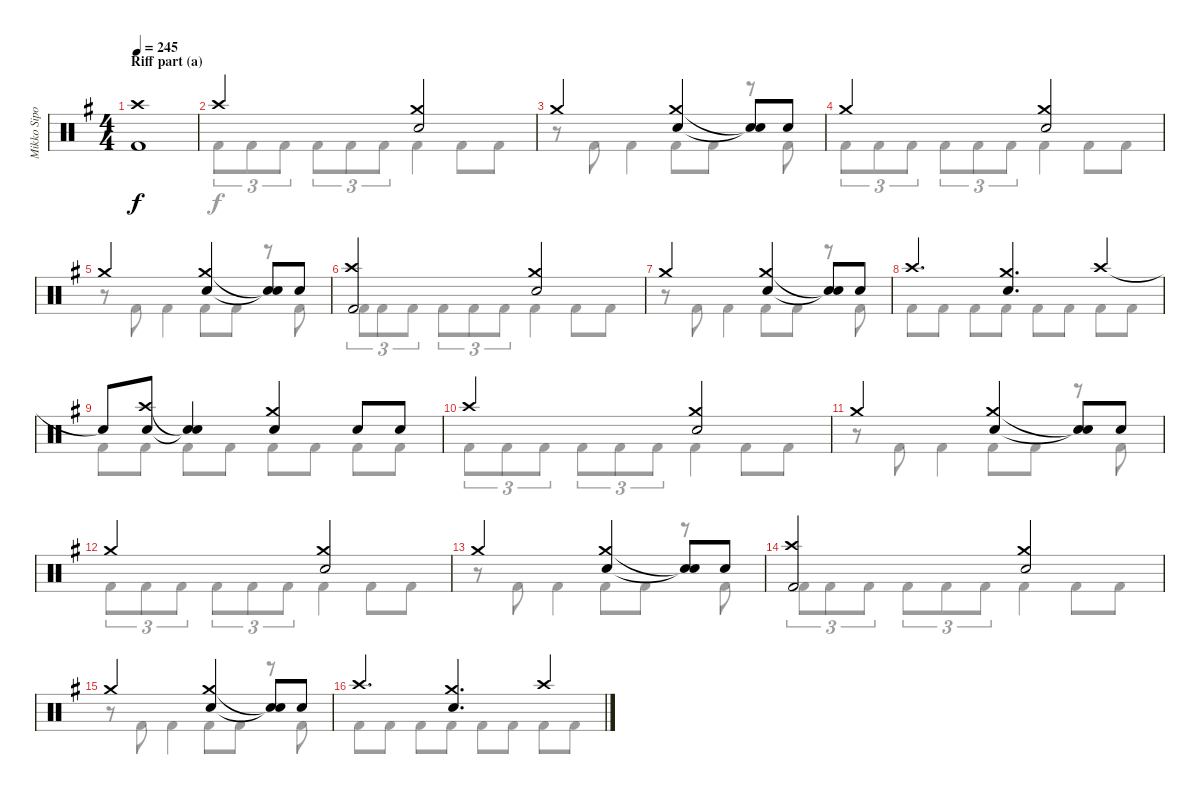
\track ("Mikko Sipola (drums)" "Mikko Sipo") {instrument percussion}
\staff {score}
\articulation defaults
\voice
\ts (4 4)
\section ("" "Riff part (a)")
\tempo 245
\clef neutral
\ks eminor
("Crash high (hit)" "Kick (hit) 2").1{dy f} |
"Crash high (hit)".2 ("Crash medium (hit)" "Electric Snare (hit)").2 |
"Crash medium (hit)".2 ("Crash medium (hit)" "Electric Snare (hit)").4 ("Snare (hit)"{t} "Snare (hit)"{t}).8 "Electric Snare (hit)".8 |
"Crash medium (hit)".2 ("Crash medium (hit)" "Electric Snare (hit)").2 |
"Crash medium (hit)".2 ("Crash medium (hit)" "Electric Snare (hit)").4 ("Snare (hit)"{t} "Snare (hit)"{t}).8 "Electric Snare (hit)".8 |
("Crash high (hit)" "Kick (hit) 2").2 ("Crash medium (hit)" "Electric Snare (hit)").2 |
"Crash medium (hit)".2 ("Crash medium (hit)" "Electric Snare (hit)").4 ("Snare (hit)"{t} "Snare (hit)"{t}).8 "Electric Snare (hit)".8 |
"Crash high (hit)".4{d} ("Crash medium (hit)" "Electric Snare (hit)").4{d} "Crash high (hit)".4 |
"Snare (hit)"{t}.8 ("Crash high (hit)" "Electric Snare (hit)").8 ("Snare (hit)"{t} "Snare (hit)"{t}).4 ("Crash medium (hit)" "Electric Snare (hit)").4 "Electric Snare (hit)".8 "Electric Snare (hit)".8 |
"Crash high (hit)".2 ("Crash medium (hit)" "Electric Snare (hit)").2 |
"Crash medium (hit)".2 ("Crash medium (hit)" "Electric Snare (hit)").4 ("Snare (hit)"{t} "Snare (hit)"{t}).8 "Electric Snare (hit)".8 |
"Crash medium (hit)".2 ("Crash medium (hit)" "Electric Snare (hit)").2 |
"Crash medium (hit)".2 ("Crash medium (hit)" "Electric Snare (hit)").4 ("Snare (hit)"{t} "Snare (hit)"{t}).8 "Electric Snare (hit)".8 |
("Crash high (hit)" "Kick (hit) 2").2 ("Crash medium (hit)" "Electric Snare (hit)").2 |
"Crash medium (hit)".2 ("Crash medium (hit)" "Electric Snare (hit)").4 ("Snare (hit)"{t} "Snare (hit)"{t}).8 "Electric Snare (hit)".8 |
"Crash high (hit)".4{d} ("Crash medium (hit)" "Electric Snare (hit)").4{d} "Crash high (hit)".4
\voice
\clef neutral
\ottava regular
\simile none
\ks eminor
|
"Kick (hit) 2".8{tu (3 2)} "Kick (hit) 2".8{tu (3 2)} "Kick (hit) 2".8{tu (3 2)} "Kick (hit) 2".8{tu (3 2)} "Kick (hit) 2".8{tu (3 2)} "Kick (hit) 2".8{tu (3 2)} "Kick (hit) 2".4 "Kick (hit) 2".8 "Kick (hit) 2".8 |
r.8 "Kick (hit) 2".8 "Kick (hit) 2".4 "Kick (hit) 2".8 "Kick (hit) 2".8 r.8 "Kick (hit) 2".8 |
"Kick (hit) 2".8{tu (3 2)} "Kick (hit) 2".8{tu (3 2)} "Kick (hit) 2".8{tu (3 2)} "Kick (hit) 2".8{tu (3 2)} "Kick (hit) 2".8{tu (3 2)} "Kick (hit) 2".8{tu (3 2)} "Kick (hit) 2".4 "Kick (hit) 2".8 "Kick (hit) 2".8 |
r.8 "Kick (hit) 2".8 "Kick (hit) 2".4 "Kick (hit) 2".8 "Kick (hit) 2".8 r.8 "Kick (hit) 2".8 |
"Kick (hit) 2".8{tu (3 2)} "Kick (hit) 2".8{tu (3 2)} "Kick (hit) 2".8{tu (3 2)} "Kick (hit) 2".8{tu (3 2)} "Kick (hit) 2".8{tu (3 2)} "Kick (hit) 2".8{tu (3 2)} "Kick (hit) 2".4 "Kick (hit) 2".8 "Kick (hit) 2".8 |
r.8 "Kick (hit) 2".8 "Kick (hit) 2".4 "Kick (hit) 2".8 "Kick (hit) 2".8 r.8 "Kick (hit) 2".8 |
"Kick (hit) 2".8 "Kick (hit) 2".8 "Kick (hit) 2".8 "Kick (hit) 2".8 "Kick (hit) 2".8 "Kick (hit) 2".8 "Kick (hit) 2".8 "Kick (hit) 2".8 |
"Kick (hit) 2".8 "Kick (hit) 2".8 "Kick (hit) 2".8 "Kick (hit) 2".8 "Kick (hit) 2".8 "Kick (hit) 2".8 "Kick (hit) 2".8 "Kick (hit) 2".8 |
"Kick (hit) 2".8{tu (3 2)} "Kick (hit) 2".8{tu (3 2)} "Kick (hit) 2".8{tu (3 2)} "Kick (hit) 2".8{tu (3 2)} "Kick (hit) 2".8{tu (3 2)} "Kick (hit) 2".8{tu (3 2)} "Kick (hit) 2".4 "Kick (hit) 2".8 "Kick (hit) 2".8 |
r.8 "Kick (hit) 2".8 "Kick (hit) 2".4 "Kick (hit) 2".8 "Kick (hit) 2".8 r.8 "Kick (hit) 2".8 |
"Kick (hit) 2".8{tu (3 2)} "Kick (hit) 2".8{tu (3 2)} "Kick (hit) 2".8{tu (3 2)} "Kick (hit) 2".8{tu (3 2)} "Kick (hit) 2".8{tu (3 2)} "Kick (hit) 2".8{tu (3 2)} "Kick (hit) 2".4 "Kick (hit) 2".8 "Kick (hit) 2".8 |
r.8 "Kick (hit) 2".8 "Kick (hit) 2".4 "Kick (hit) 2".8 "Kick (hit) 2".8 r.8 "Kick (hit) 2".8 |
"Kick (hit) 2".8{tu (3 2)} "Kick (hit) 2".8{tu (3 2)} "Kick (hit) 2".8{tu (3 2)} "Kick (hit) 2".8{tu (3 2)} "Kick (hit) 2".8{tu (3 2)} "Kick (hit) 2".8{tu (3 2)} "Kick (hit) 2".4 "Kick (hit) 2".8 "Kick (hit) 2".8 |
r.8 "Kick (hit) 2".8 "Kick (hit) 2".4 "Kick (hit) 2".8 "Kick (hit) 2".8 r.8 "Kick (hit) 2".8 |
"Kick (hit) 2".8 "Kick (hit) 2".8 "Kick (hit) 2".8 "Kick (hit) 2".8 "Kick (hit) 2".8 "Kick (hit) 2".8 "Kick (hit) 2".8 "Kick (hit) 2".8
